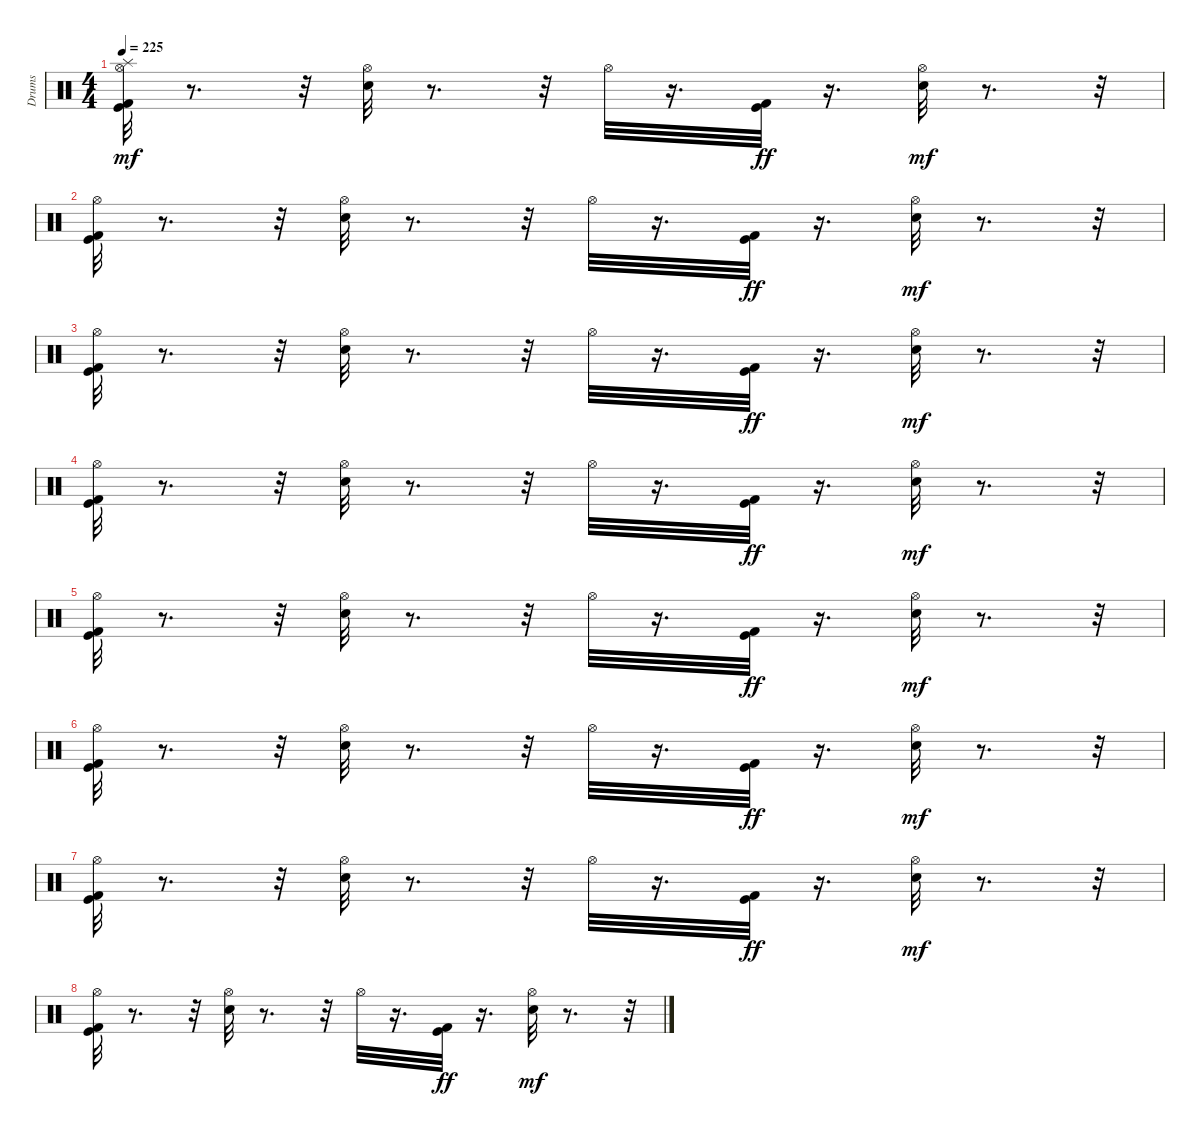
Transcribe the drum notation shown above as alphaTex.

\track ("Drums" "Drums") {instrument percussion}
\staff {score}
\articulation defaults
\ts (4 4)
\tempo 225
\clef neutral
\ks c
("Kick (hit) 2" "Kick (hit)" "Hi-Hat (open)" "Splash (hit)").32{dy mf} r.8{d} r.32 ("Snare (hit) 2" "Hi-Hat (open)").32 r.8{d} r.32 "Hi-Hat (open)".32 r.16{d} ("Kick (hit) 2" "Kick (hit)").32{dy ff} r.16{d} ("Snare (hit) 2" "Hi-Hat (open)").32{dy mf} r.8{d} r.32 |
("Kick (hit) 2" "Kick (hit)" "Hi-Hat (open)").32 r.8{d} r.32 ("Snare (hit) 2" "Hi-Hat (open)").32 r.8{d} r.32 "Hi-Hat (open)".32 r.16{d} ("Kick (hit) 2" "Kick (hit)").32{dy ff} r.16{d} ("Snare (hit) 2" "Hi-Hat (open)").32{dy mf} r.8{d} r.32 |
("Kick (hit) 2" "Kick (hit)" "Hi-Hat (open)").32 r.8{d} r.32 ("Snare (hit) 2" "Hi-Hat (open)").32 r.8{d} r.32 "Hi-Hat (open)".32 r.16{d} ("Kick (hit) 2" "Kick (hit)").32{dy ff} r.16{d} ("Snare (hit) 2" "Hi-Hat (open)").32{dy mf} r.8{d} r.32 |
("Kick (hit) 2" "Kick (hit)" "Hi-Hat (open)").32 r.8{d} r.32 ("Snare (hit) 2" "Hi-Hat (open)").32 r.8{d} r.32 "Hi-Hat (open)".32 r.16{d} ("Kick (hit) 2" "Kick (hit)").32{dy ff} r.16{d} ("Snare (hit) 2" "Hi-Hat (open)").32{dy mf} r.8{d} r.32 |
("Kick (hit) 2" "Kick (hit)" "Hi-Hat (open)").32 r.8{d} r.32 ("Snare (hit) 2" "Hi-Hat (open)").32 r.8{d} r.32 "Hi-Hat (open)".32 r.16{d} ("Kick (hit) 2" "Kick (hit)").32{dy ff} r.16{d} ("Snare (hit) 2" "Hi-Hat (open)").32{dy mf} r.8{d} r.32 |
("Kick (hit) 2" "Kick (hit)" "Hi-Hat (open)").32 r.8{d} r.32 ("Snare (hit) 2" "Hi-Hat (open)").32 r.8{d} r.32 "Hi-Hat (open)".32 r.16{d} ("Kick (hit) 2" "Kick (hit)").32{dy ff} r.16{d} ("Snare (hit) 2" "Hi-Hat (open)").32{dy mf} r.8{d} r.32 |
("Kick (hit) 2" "Kick (hit)" "Hi-Hat (open)").32 r.8{d} r.32 ("Snare (hit) 2" "Hi-Hat (open)").32 r.8{d} r.32 "Hi-Hat (open)".32 r.16{d} ("Kick (hit) 2" "Kick (hit)").32{dy ff} r.16{d} ("Snare (hit) 2" "Hi-Hat (open)").32{dy mf} r.8{d} r.32 |
("Kick (hit) 2" "Kick (hit)" "Hi-Hat (open)").32 r.8{d} r.32 ("Snare (hit) 2" "Hi-Hat (open)").32 r.8{d} r.32 "Hi-Hat (open)".32 r.16{d} ("Kick (hit) 2" "Kick (hit)").32{dy ff} r.16{d} ("Snare (hit) 2" "Hi-Hat (open)").32{dy mf} r.8{d} r.32
